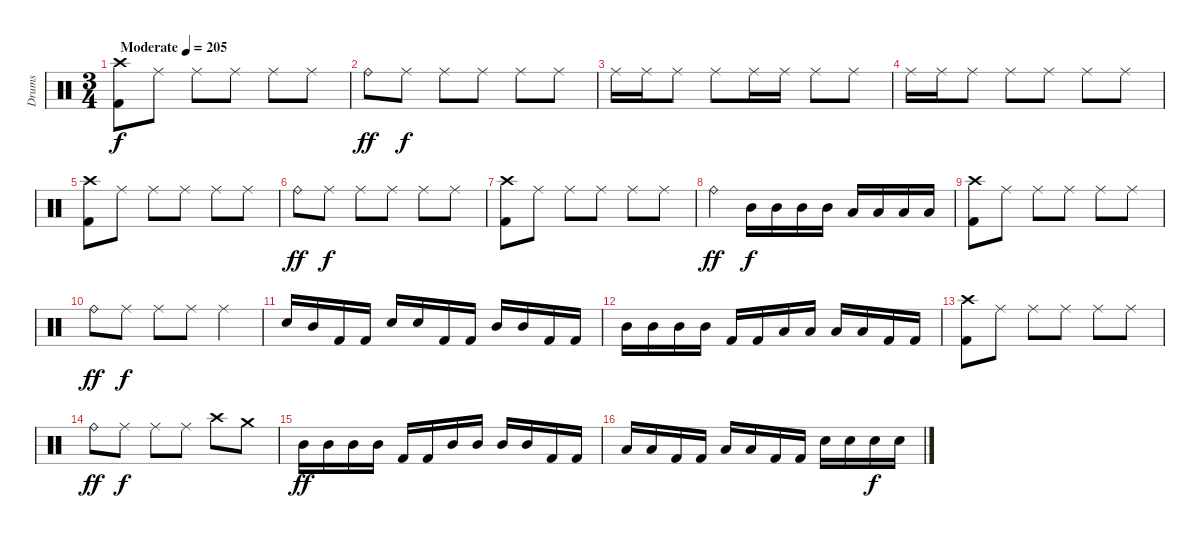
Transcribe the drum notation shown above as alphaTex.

\track ("Drums" "Drums") {instrument percussion}
\staff {score}
\articulation defaults
\ts (3 4)
\tempo (205 "Moderate")
\clef neutral
\ks c
("Crash high (hit)" "Kick (hit) 2").8{dy f} "Ride (middle)".8 "Ride (middle)".8 "Ride (middle)".8 "Ride (middle)".8 "Ride (middle)".8 |
"Ride (bell)".8{dy ff} "Ride (middle)".8{dy f} "Ride (middle)".8 "Ride (middle)".8 "Ride (middle)".8 "Ride (middle)".8 |
"Ride (middle)".16 "Ride (middle)".16 "Ride (middle)".8 "Ride (middle)".8 "Ride (middle)".16 "Ride (middle)".16 "Ride (middle)".8 "Ride (middle)".8 |
"Ride (middle)".16 "Ride (middle)".16 "Ride (middle)".8 "Ride (middle)".8 "Ride (middle)".8 "Ride (middle)".8 "Ride (middle)".8 |
("Crash high (hit)" "Kick (hit) 2").8 "Ride (middle)".8 "Ride (middle)".8 "Ride (middle)".8 "Ride (middle)".8 "Ride (middle)".8 |
"Ride (bell)".8{dy ff} "Ride (middle)".8{dy f} "Ride (middle)".8 "Ride (middle)".8 "Ride (middle)".8 "Ride (middle)".8 |
("Crash high (hit)" "Kick (hit) 2").8 "Ride (middle)".8 "Ride (middle)".8 "Ride (middle)".8 "Ride (middle)".8 "Ride (middle)".8 |
"Ride (bell)".4{dy ff} "Mid Tom (hit)".16{dy f} "Mid Tom (hit)".16 "Mid Tom (hit)".16 "Mid Tom (hit)".16 "Low Tom (hit)".16 "Low Tom (hit)".16 "Low Tom (hit)".16 "Low Tom (hit)".16 |
("Crash high (hit)" "Kick (hit) 2").8 "Ride (middle)".8 "Ride (middle)".8 "Ride (middle)".8 "Ride (middle)".8 "Ride (middle)".8 |
"Ride (bell)".8{dy ff} "Ride (middle)".8{dy f} "Ride (middle)".8 "Ride (middle)".8 "Ride (middle)".4 |
"Snare (hit) 2".16 "Mid Tom (hit)".16 "Kick (hit) 2".16 "Kick (hit) 2".16 "Snare (hit) 2".16 "Snare (hit) 2".16 "Kick (hit) 2".16 "Kick (hit) 2".16 "Mid Tom (hit)".16 "Mid Tom (hit)".16 "Kick (hit) 2".16 "Kick (hit) 2".16 |
"Mid Tom (hit)".16 "Mid Tom (hit)".16 "Mid Tom (hit)".16 "Mid Tom (hit)".16 "Kick (hit) 2".16 "Kick (hit) 2".16 "Low Tom (hit)".16 "Low Tom (hit)".16 "Low Tom (hit)".16 "Low Tom (hit)".16 "Kick (hit) 2".16 "Kick (hit) 2".16 |
("Crash high (hit)" "Kick (hit) 2").8 "Ride (middle)".8 "Ride (middle)".8 "Ride (middle)".8 "Ride (middle)".8 "Ride (middle)".8 |
"Ride (bell)".8{dy ff} "Ride (middle)".8{dy f} "Ride (middle)".8 "Ride (middle)".8 "Crash high (hit)".8 "Crash medium (hit)".8 |
"Mid Tom (hit)".16{dy ff} "Mid Tom (hit)".16 "Mid Tom (hit)".16 "Mid Tom (hit)".16 "Kick (hit) 2".16 "Kick (hit) 2".16 "Mid Tom (hit)".16 "Mid Tom (hit)".16 "Mid Tom (hit)".16 "Mid Tom (hit)".16 "Kick (hit) 2".16 "Kick (hit) 2".16 |
"Low Tom (hit)".16 "Low Tom (hit)".16 "Kick (hit) 2".16 "Kick (hit) 2".16 "Low Tom (hit)".16 "Low Tom (hit)".16 "Kick (hit) 2".16 "Kick (hit) 2".16 "Snare (hit) 2".16 "Snare (hit) 2".16 "Snare (hit) 2".16{dy f} "Snare (hit) 2".16
